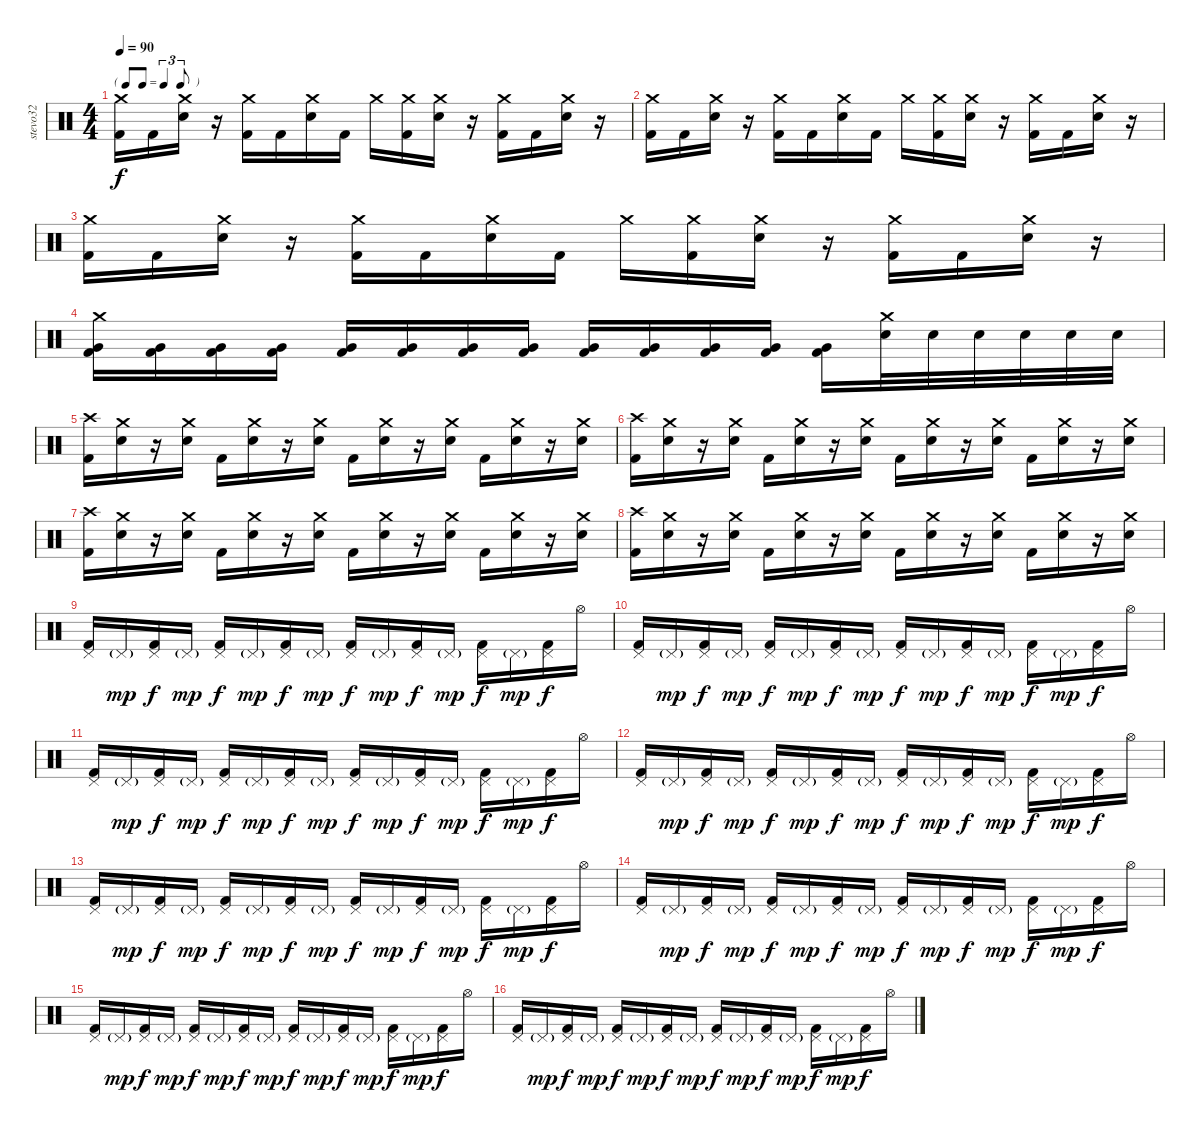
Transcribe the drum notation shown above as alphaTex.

\track ("stevo32" "stevo32") {instrument percussion}
\staff {score}
\articulation defaults
\ts (4 4)
\tf triplet8th
\tempo 90
\clef neutral
\ks c
("Crash medium (hit)" "Kick (hit) 2").16{dy f} "Kick (hit) 2".16 ("Crash medium (hit)" "Electric Snare (hit)").16 r.16 ("Crash medium (hit)" "Kick (hit) 2").16 "Kick (hit) 2".16 ("Crash medium (hit)" "Electric Snare (hit)").16 "Kick (hit) 2".16 "Crash medium (hit)".16 ("Crash medium (hit)" "Kick (hit) 2").16 ("Crash medium (hit)" "Electric Snare (hit)").16 r.16 ("Crash medium (hit)" "Kick (hit) 2").16 "Kick (hit) 2".16 ("Crash medium (hit)" "Electric Snare (hit)").16 r.16 |
("Crash medium (hit)" "Kick (hit) 2").16 "Kick (hit) 2".16 ("Crash medium (hit)" "Electric Snare (hit)").16 r.16 ("Crash medium (hit)" "Kick (hit) 2").16 "Kick (hit) 2".16 ("Crash medium (hit)" "Electric Snare (hit)").16 "Kick (hit) 2".16 "Crash medium (hit)".16 ("Crash medium (hit)" "Kick (hit) 2").16 ("Crash medium (hit)" "Electric Snare (hit)").16 r.16 ("Crash medium (hit)" "Kick (hit) 2").16 "Kick (hit) 2".16 ("Crash medium (hit)" "Electric Snare (hit)").16 r.16 |
("Crash medium (hit)" "Kick (hit) 2").16 "Kick (hit) 2".16 ("Crash medium (hit)" "Electric Snare (hit)").16 r.16 ("Crash medium (hit)" "Kick (hit) 2").16 "Kick (hit) 2".16 ("Crash medium (hit)" "Electric Snare (hit)").16 "Kick (hit) 2".16 "Crash medium (hit)".16 ("Crash medium (hit)" "Kick (hit) 2").16 ("Crash medium (hit)" "Electric Snare (hit)").16 r.16 ("Crash medium (hit)" "Kick (hit) 2").16 "Kick (hit) 2".16 ("Crash medium (hit)" "Electric Snare (hit)").16 r.16 |
("Crash medium (hit)" "Kick (hit) 2" "Very Low Tom (hit)").16 ("Kick (hit) 2" "Very Low Tom (hit)").16 ("Kick (hit) 2" "Very Low Tom (hit)").16 ("Kick (hit) 2" "Very Low Tom (hit)").16 ("Kick (hit) 2" "Very Low Tom (hit)").16 ("Kick (hit) 2" "Very Low Tom (hit)").16 ("Kick (hit) 2" "Very Low Tom (hit)").16 ("Kick (hit) 2" "Very Low Tom (hit)").16 ("Kick (hit) 2" "Very Low Tom (hit)").16 ("Kick (hit) 2" "Very Low Tom (hit)").16 ("Kick (hit) 2" "Very Low Tom (hit)").16 ("Kick (hit) 2" "Very Low Tom (hit)").16 ("Kick (hit) 2" "Very Low Tom (hit)").16 ("Crash medium (hit)" "Electric Snare (hit)").32 "Electric Snare (hit)".32 "Electric Snare (hit)".32 "Electric Snare (hit)".32 "Electric Snare (hit)".32 "Electric Snare (hit)".32 |
("Crash high (hit)" "Kick (hit) 2").16 ("Crash medium (hit)" "Electric Snare (hit)").16 r.16 ("Crash medium (hit)" "Electric Snare (hit)").16 "Kick (hit) 2".16 ("Crash medium (hit)" "Electric Snare (hit)").16 r.16 ("Crash medium (hit)" "Electric Snare (hit)").16 "Kick (hit) 2".16 ("Crash medium (hit)" "Electric Snare (hit)").16 r.16 ("Crash medium (hit)" "Electric Snare (hit)").16 "Kick (hit) 2".16 ("Crash medium (hit)" "Electric Snare (hit)").16 r.16 ("Crash medium (hit)" "Electric Snare (hit)").16 |
("Crash high (hit)" "Kick (hit) 2").16 ("Crash medium (hit)" "Electric Snare (hit)").16 r.16 ("Crash medium (hit)" "Electric Snare (hit)").16 "Kick (hit) 2".16 ("Crash medium (hit)" "Electric Snare (hit)").16 r.16 ("Crash medium (hit)" "Electric Snare (hit)").16 "Kick (hit) 2".16 ("Crash medium (hit)" "Electric Snare (hit)").16 r.16 ("Crash medium (hit)" "Electric Snare (hit)").16 "Kick (hit) 2".16 ("Crash medium (hit)" "Electric Snare (hit)").16 r.16 ("Crash medium (hit)" "Electric Snare (hit)").16 |
("Crash high (hit)" "Kick (hit) 2").16 ("Crash medium (hit)" "Electric Snare (hit)").16 r.16 ("Crash medium (hit)" "Electric Snare (hit)").16 "Kick (hit) 2".16 ("Crash medium (hit)" "Electric Snare (hit)").16 r.16 ("Crash medium (hit)" "Electric Snare (hit)").16 "Kick (hit) 2".16 ("Crash medium (hit)" "Electric Snare (hit)").16 r.16 ("Crash medium (hit)" "Electric Snare (hit)").16 "Kick (hit) 2".16 ("Crash medium (hit)" "Electric Snare (hit)").16 r.16 ("Crash medium (hit)" "Electric Snare (hit)").16 |
("Crash high (hit)" "Kick (hit) 2").16 ("Crash medium (hit)" "Electric Snare (hit)").16 r.16 ("Crash medium (hit)" "Electric Snare (hit)").16 "Kick (hit) 2".16 ("Crash medium (hit)" "Electric Snare (hit)").16 r.16 ("Crash medium (hit)" "Electric Snare (hit)").16 "Kick (hit) 2".16 ("Crash medium (hit)" "Electric Snare (hit)").16 r.16 ("Crash medium (hit)" "Electric Snare (hit)").16 "Kick (hit) 2".16 ("Crash medium (hit)" "Electric Snare (hit)").16 r.16 ("Crash medium (hit)" "Electric Snare (hit)").16 |
("Pedal Hi-Hat (hit)" "Kick (hit) 2").16 "Pedal Hi-Hat (hit)"{g}.16{dy mp} ("Pedal Hi-Hat (hit)" "Kick (hit) 2").16{dy f} "Pedal Hi-Hat (hit)"{g}.16{dy mp} ("Pedal Hi-Hat (hit)" "Kick (hit) 2").16{dy f} "Pedal Hi-Hat (hit)"{g}.16{dy mp} ("Pedal Hi-Hat (hit)" "Kick (hit) 2").16{dy f} "Pedal Hi-Hat (hit)"{g}.16{dy mp} ("Pedal Hi-Hat (hit)" "Kick (hit) 2").16{dy f} "Pedal Hi-Hat (hit)"{g}.16{dy mp} ("Pedal Hi-Hat (hit)" "Kick (hit) 2").16{dy f} "Pedal Hi-Hat (hit)"{g}.16{dy mp} ("Pedal Hi-Hat (hit)" "Kick (hit) 2").16{dy f} "Pedal Hi-Hat (hit)"{g}.16{dy mp} ("Pedal Hi-Hat (hit)" "Kick (hit) 2").16{dy f} "Hi-Hat (open)".16 |
("Pedal Hi-Hat (hit)" "Kick (hit) 2").16 "Pedal Hi-Hat (hit)"{g}.16{dy mp} ("Pedal Hi-Hat (hit)" "Kick (hit) 2").16{dy f} "Pedal Hi-Hat (hit)"{g}.16{dy mp} ("Pedal Hi-Hat (hit)" "Kick (hit) 2").16{dy f} "Pedal Hi-Hat (hit)"{g}.16{dy mp} ("Pedal Hi-Hat (hit)" "Kick (hit) 2").16{dy f} "Pedal Hi-Hat (hit)"{g}.16{dy mp} ("Pedal Hi-Hat (hit)" "Kick (hit) 2").16{dy f} "Pedal Hi-Hat (hit)"{g}.16{dy mp} ("Pedal Hi-Hat (hit)" "Kick (hit) 2").16{dy f} "Pedal Hi-Hat (hit)"{g}.16{dy mp} ("Pedal Hi-Hat (hit)" "Kick (hit) 2").16{dy f} "Pedal Hi-Hat (hit)"{g}.16{dy mp} ("Pedal Hi-Hat (hit)" "Kick (hit) 2").16{dy f} "Hi-Hat (open)".16 |
("Pedal Hi-Hat (hit)" "Kick (hit) 2").16 "Pedal Hi-Hat (hit)"{g}.16{dy mp} ("Pedal Hi-Hat (hit)" "Kick (hit) 2").16{dy f} "Pedal Hi-Hat (hit)"{g}.16{dy mp} ("Pedal Hi-Hat (hit)" "Kick (hit) 2").16{dy f} "Pedal Hi-Hat (hit)"{g}.16{dy mp} ("Pedal Hi-Hat (hit)" "Kick (hit) 2").16{dy f} "Pedal Hi-Hat (hit)"{g}.16{dy mp} ("Pedal Hi-Hat (hit)" "Kick (hit) 2").16{dy f} "Pedal Hi-Hat (hit)"{g}.16{dy mp} ("Pedal Hi-Hat (hit)" "Kick (hit) 2").16{dy f} "Pedal Hi-Hat (hit)"{g}.16{dy mp} ("Pedal Hi-Hat (hit)" "Kick (hit) 2").16{dy f} "Pedal Hi-Hat (hit)"{g}.16{dy mp} ("Pedal Hi-Hat (hit)" "Kick (hit) 2").16{dy f} "Hi-Hat (open)".16 |
("Pedal Hi-Hat (hit)" "Kick (hit) 2").16 "Pedal Hi-Hat (hit)"{g}.16{dy mp} ("Pedal Hi-Hat (hit)" "Kick (hit) 2").16{dy f} "Pedal Hi-Hat (hit)"{g}.16{dy mp} ("Pedal Hi-Hat (hit)" "Kick (hit) 2").16{dy f} "Pedal Hi-Hat (hit)"{g}.16{dy mp} ("Pedal Hi-Hat (hit)" "Kick (hit) 2").16{dy f} "Pedal Hi-Hat (hit)"{g}.16{dy mp} ("Pedal Hi-Hat (hit)" "Kick (hit) 2").16{dy f} "Pedal Hi-Hat (hit)"{g}.16{dy mp} ("Pedal Hi-Hat (hit)" "Kick (hit) 2").16{dy f} "Pedal Hi-Hat (hit)"{g}.16{dy mp} ("Pedal Hi-Hat (hit)" "Kick (hit) 2").16{dy f} "Pedal Hi-Hat (hit)"{g}.16{dy mp} ("Pedal Hi-Hat (hit)" "Kick (hit) 2").16{dy f} "Hi-Hat (open)".16 |
("Pedal Hi-Hat (hit)" "Kick (hit) 2").16 "Pedal Hi-Hat (hit)"{g}.16{dy mp} ("Pedal Hi-Hat (hit)" "Kick (hit) 2").16{dy f} "Pedal Hi-Hat (hit)"{g}.16{dy mp} ("Pedal Hi-Hat (hit)" "Kick (hit) 2").16{dy f} "Pedal Hi-Hat (hit)"{g}.16{dy mp} ("Pedal Hi-Hat (hit)" "Kick (hit) 2").16{dy f} "Pedal Hi-Hat (hit)"{g}.16{dy mp} ("Pedal Hi-Hat (hit)" "Kick (hit) 2").16{dy f} "Pedal Hi-Hat (hit)"{g}.16{dy mp} ("Pedal Hi-Hat (hit)" "Kick (hit) 2").16{dy f} "Pedal Hi-Hat (hit)"{g}.16{dy mp} ("Pedal Hi-Hat (hit)" "Kick (hit) 2").16{dy f} "Pedal Hi-Hat (hit)"{g}.16{dy mp} ("Pedal Hi-Hat (hit)" "Kick (hit) 2").16{dy f} "Hi-Hat (open)".16 |
("Pedal Hi-Hat (hit)" "Kick (hit) 2").16 "Pedal Hi-Hat (hit)"{g}.16{dy mp} ("Pedal Hi-Hat (hit)" "Kick (hit) 2").16{dy f} "Pedal Hi-Hat (hit)"{g}.16{dy mp} ("Pedal Hi-Hat (hit)" "Kick (hit) 2").16{dy f} "Pedal Hi-Hat (hit)"{g}.16{dy mp} ("Pedal Hi-Hat (hit)" "Kick (hit) 2").16{dy f} "Pedal Hi-Hat (hit)"{g}.16{dy mp} ("Pedal Hi-Hat (hit)" "Kick (hit) 2").16{dy f} "Pedal Hi-Hat (hit)"{g}.16{dy mp} ("Pedal Hi-Hat (hit)" "Kick (hit) 2").16{dy f} "Pedal Hi-Hat (hit)"{g}.16{dy mp} ("Pedal Hi-Hat (hit)" "Kick (hit) 2").16{dy f} "Pedal Hi-Hat (hit)"{g}.16{dy mp} ("Pedal Hi-Hat (hit)" "Kick (hit) 2").16{dy f} "Hi-Hat (open)".16 |
("Pedal Hi-Hat (hit)" "Kick (hit) 2").16 "Pedal Hi-Hat (hit)"{g}.16{dy mp} ("Pedal Hi-Hat (hit)" "Kick (hit) 2").16{dy f} "Pedal Hi-Hat (hit)"{g}.16{dy mp} ("Pedal Hi-Hat (hit)" "Kick (hit) 2").16{dy f} "Pedal Hi-Hat (hit)"{g}.16{dy mp} ("Pedal Hi-Hat (hit)" "Kick (hit) 2").16{dy f} "Pedal Hi-Hat (hit)"{g}.16{dy mp} ("Pedal Hi-Hat (hit)" "Kick (hit) 2").16{dy f} "Pedal Hi-Hat (hit)"{g}.16{dy mp} ("Pedal Hi-Hat (hit)" "Kick (hit) 2").16{dy f} "Pedal Hi-Hat (hit)"{g}.16{dy mp} ("Pedal Hi-Hat (hit)" "Kick (hit) 2").16{dy f} "Pedal Hi-Hat (hit)"{g}.16{dy mp} ("Pedal Hi-Hat (hit)" "Kick (hit) 2").16{dy f} "Hi-Hat (open)".16 |
("Pedal Hi-Hat (hit)" "Kick (hit) 2").16 "Pedal Hi-Hat (hit)"{g}.16{dy mp} ("Pedal Hi-Hat (hit)" "Kick (hit) 2").16{dy f} "Pedal Hi-Hat (hit)"{g}.16{dy mp} ("Pedal Hi-Hat (hit)" "Kick (hit) 2").16{dy f} "Pedal Hi-Hat (hit)"{g}.16{dy mp} ("Pedal Hi-Hat (hit)" "Kick (hit) 2").16{dy f} "Pedal Hi-Hat (hit)"{g}.16{dy mp} ("Pedal Hi-Hat (hit)" "Kick (hit) 2").16{dy f} "Pedal Hi-Hat (hit)"{g}.16{dy mp} ("Pedal Hi-Hat (hit)" "Kick (hit) 2").16{dy f} "Pedal Hi-Hat (hit)"{g}.16{dy mp} ("Pedal Hi-Hat (hit)" "Kick (hit) 2").16{dy f} "Pedal Hi-Hat (hit)"{g}.16{dy mp} ("Pedal Hi-Hat (hit)" "Kick (hit) 2").16{dy f} "Hi-Hat (open)".16
